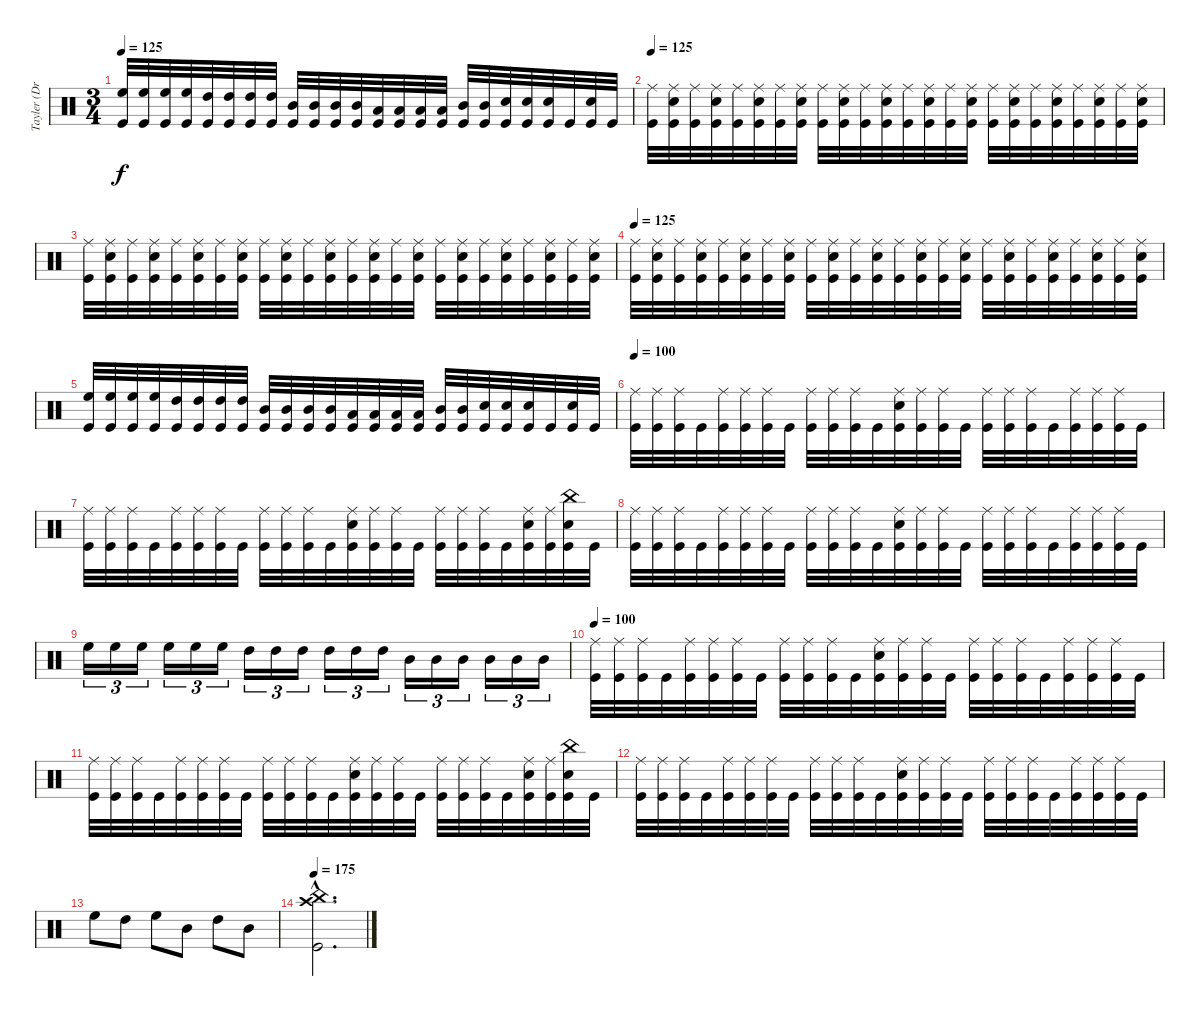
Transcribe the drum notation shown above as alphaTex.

\track ("Tayler (Drums)" "Tayler (Dr") {instrument percussion}
\staff {score}
\articulation defaults
\ts (3 4)
\tempo 125
\clef neutral
\ks c
("High Floor Tom (hit)" "Kick (hit)").32{dy f} ("High Floor Tom (hit)" "Kick (hit)").32 ("High Floor Tom (hit)" "Kick (hit)").32 ("High Floor Tom (hit)" "Kick (hit)").32 ("High Tom (hit)" "Kick (hit)").32 ("High Tom (hit)" "Kick (hit)").32 ("High Tom (hit)" "Kick (hit)").32 ("High Tom (hit)" "Kick (hit)").32 ("Mid Tom (hit)" "Kick (hit)").32 ("Mid Tom (hit)" "Kick (hit)").32 ("Mid Tom (hit)" "Kick (hit)").32 ("Mid Tom (hit)" "Kick (hit)").32 ("Low Tom (hit)" "Kick (hit)").32 ("Low Tom (hit)" "Kick (hit)").32 ("Low Tom (hit)" "Kick (hit)").32 ("Low Tom (hit)" "Kick (hit)").32 ("Mid Tom (hit)" "Kick (hit)").32 ("Mid Tom (hit)" "Kick (hit)").32 ("Electric Snare (hit)" "Kick (hit)").32 ("Electric Snare (hit)" "Kick (hit)").32 ("Electric Snare (hit)" "Kick (hit)").32 "Kick (hit)".32 ("Electric Snare (hit)" "Kick (hit)").32 "Kick (hit)".32 |
\tempo 125
("Ride (middle)" "Kick (hit)").32 ("Ride (middle)" "Electric Snare (hit)" "Kick (hit)").32 ("Ride (middle)" "Kick (hit)").32 ("Ride (middle)" "Electric Snare (hit)" "Kick (hit)").32 ("Ride (middle)" "Kick (hit)").32 ("Ride (middle)" "Electric Snare (hit)" "Kick (hit)").32 ("Ride (middle)" "Kick (hit)").32 ("Ride (middle)" "Electric Snare (hit)" "Kick (hit)").32 ("Ride (middle)" "Kick (hit)").32 ("Ride (middle)" "Electric Snare (hit)" "Kick (hit)").32 ("Ride (middle)" "Kick (hit)").32 ("Ride (middle)" "Electric Snare (hit)" "Kick (hit)").32 ("Ride (middle)" "Kick (hit)").32 ("Ride (middle)" "Electric Snare (hit)" "Kick (hit)").32 ("Ride (middle)" "Kick (hit)").32 ("Ride (middle)" "Electric Snare (hit)" "Kick (hit)").32 ("Ride (middle)" "Kick (hit)").32 ("Ride (middle)" "Electric Snare (hit)" "Kick (hit)").32 ("Ride (middle)" "Kick (hit)").32 ("Ride (middle)" "Electric Snare (hit)" "Kick (hit)").32 ("Ride (middle)" "Kick (hit)").32 ("Ride (middle)" "Electric Snare (hit)" "Kick (hit)").32 ("Ride (middle)" "Kick (hit)").32 ("Ride (middle)" "Electric Snare (hit)" "Kick (hit)").32 |
("Ride (middle)" "Kick (hit)").32 ("Ride (middle)" "Electric Snare (hit)" "Kick (hit)").32 ("Ride (middle)" "Kick (hit)").32 ("Ride (middle)" "Electric Snare (hit)" "Kick (hit)").32 ("Ride (middle)" "Kick (hit)").32 ("Ride (middle)" "Electric Snare (hit)" "Kick (hit)").32 ("Ride (middle)" "Kick (hit)").32 ("Ride (middle)" "Electric Snare (hit)" "Kick (hit)").32 ("Ride (middle)" "Kick (hit)").32 ("Ride (middle)" "Electric Snare (hit)" "Kick (hit)").32 ("Ride (middle)" "Kick (hit)").32 ("Ride (middle)" "Electric Snare (hit)" "Kick (hit)").32 ("Ride (middle)" "Kick (hit)").32 ("Ride (middle)" "Electric Snare (hit)" "Kick (hit)").32 ("Ride (middle)" "Kick (hit)").32 ("Ride (middle)" "Electric Snare (hit)" "Kick (hit)").32 ("Ride (middle)" "Kick (hit)").32 ("Ride (middle)" "Electric Snare (hit)" "Kick (hit)").32 ("Ride (middle)" "Kick (hit)").32 ("Ride (middle)" "Electric Snare (hit)" "Kick (hit)").32 ("Ride (middle)" "Kick (hit)").32 ("Ride (middle)" "Electric Snare (hit)" "Kick (hit)").32 ("Ride (middle)" "Kick (hit)").32 ("Ride (middle)" "Electric Snare (hit)" "Kick (hit)").32 |
\tempo 125
("Ride (middle)" "Kick (hit)").32 ("Ride (middle)" "Electric Snare (hit)" "Kick (hit)").32 ("Ride (middle)" "Kick (hit)").32 ("Ride (middle)" "Electric Snare (hit)" "Kick (hit)").32 ("Ride (middle)" "Kick (hit)").32 ("Ride (middle)" "Electric Snare (hit)" "Kick (hit)").32 ("Ride (middle)" "Kick (hit)").32 ("Ride (middle)" "Electric Snare (hit)" "Kick (hit)").32 ("Ride (middle)" "Kick (hit)").32 ("Ride (middle)" "Electric Snare (hit)" "Kick (hit)").32 ("Ride (middle)" "Kick (hit)").32 ("Ride (middle)" "Electric Snare (hit)" "Kick (hit)").32 ("Ride (middle)" "Kick (hit)").32 ("Ride (middle)" "Electric Snare (hit)" "Kick (hit)").32 ("Ride (middle)" "Kick (hit)").32 ("Ride (middle)" "Electric Snare (hit)" "Kick (hit)").32 ("Ride (middle)" "Kick (hit)").32 ("Ride (middle)" "Electric Snare (hit)" "Kick (hit)").32 ("Ride (middle)" "Kick (hit)").32 ("Ride (middle)" "Electric Snare (hit)" "Kick (hit)").32 ("Ride (middle)" "Kick (hit)").32 ("Ride (middle)" "Electric Snare (hit)" "Kick (hit)").32 ("Ride (middle)" "Kick (hit)").32 ("Ride (middle)" "Electric Snare (hit)" "Kick (hit)").32 |
("High Floor Tom (hit)" "Kick (hit)").32 ("High Floor Tom (hit)" "Kick (hit)").32 ("High Floor Tom (hit)" "Kick (hit)").32 ("High Floor Tom (hit)" "Kick (hit)").32 ("High Tom (hit)" "Kick (hit)").32 ("High Tom (hit)" "Kick (hit)").32 ("High Tom (hit)" "Kick (hit)").32 ("High Tom (hit)" "Kick (hit)").32 ("Mid Tom (hit)" "Kick (hit)").32 ("Mid Tom (hit)" "Kick (hit)").32 ("Mid Tom (hit)" "Kick (hit)").32 ("Mid Tom (hit)" "Kick (hit)").32 ("Low Tom (hit)" "Kick (hit)").32 ("Low Tom (hit)" "Kick (hit)").32 ("Low Tom (hit)" "Kick (hit)").32 ("Low Tom (hit)" "Kick (hit)").32 ("Mid Tom (hit)" "Kick (hit)").32 ("Mid Tom (hit)" "Kick (hit)").32 ("Electric Snare (hit)" "Kick (hit)").32 ("Electric Snare (hit)" "Kick (hit)").32 ("Electric Snare (hit)" "Kick (hit)").32 "Kick (hit)".32 ("Electric Snare (hit)" "Kick (hit)").32 "Kick (hit)".32 |
\tempo 100
("Ride (middle)" "Kick (hit)").32 ("Ride (middle)" "Kick (hit)").32 ("Ride (middle)" "Kick (hit)").32 "Kick (hit)".32 ("Ride (middle)" "Kick (hit)").32 ("Ride (middle)" "Kick (hit)").32 ("Ride (middle)" "Kick (hit)").32 "Kick (hit)".32 ("Ride (middle)" "Kick (hit)").32 ("Ride (middle)" "Kick (hit)").32 ("Ride (middle)" "Kick (hit)").32 "Kick (hit)".32 ("Ride (middle)" "Electric Snare (hit)" "Kick (hit)").32 ("Ride (middle)" "Kick (hit)").32 ("Ride (middle)" "Kick (hit)").32 "Kick (hit)".32 ("Ride (middle)" "Kick (hit)").32 ("Ride (middle)" "Kick (hit)").32 ("Ride (middle)" "Kick (hit)").32 "Kick (hit)".32 ("Ride (middle)" "Kick (hit)").32 ("Ride (middle)" "Kick (hit)").32 ("Ride (middle)" "Kick (hit)").32 "Kick (hit)".32 |
("Ride (middle)" "Kick (hit)").32 ("Ride (middle)" "Kick (hit)").32 ("Ride (middle)" "Kick (hit)").32 "Kick (hit)".32 ("Ride (middle)" "Kick (hit)").32 ("Ride (middle)" "Kick (hit)").32 ("Ride (middle)" "Kick (hit)").32 "Kick (hit)".32 ("Ride (middle)" "Kick (hit)").32 ("Ride (middle)" "Kick (hit)").32 ("Ride (middle)" "Kick (hit)").32 "Kick (hit)".32 ("Ride (middle)" "Electric Snare (hit)" "Kick (hit)").32 ("Ride (middle)" "Kick (hit)").32 ("Ride (middle)" "Kick (hit)").32 "Kick (hit)".32 ("Ride (middle)" "Kick (hit)").32 ("Ride (middle)" "Kick (hit)").32 ("Ride (middle)" "Kick (hit)").32 "Kick (hit)".32 ("Ride (middle)" "Electric Snare (hit)" "Kick (hit)").32 ("Ride (middle)" "Kick (hit)").32 ("China (hit)" "Electric Snare (hit)" "Kick (hit)").32 "Kick (hit)".32 |
("Ride (middle)" "Kick (hit)").32 ("Ride (middle)" "Kick (hit)").32 ("Ride (middle)" "Kick (hit)").32 "Kick (hit)".32 ("Ride (middle)" "Kick (hit)").32 ("Ride (middle)" "Kick (hit)").32 ("Ride (middle)" "Kick (hit)").32 "Kick (hit)".32 ("Ride (middle)" "Kick (hit)").32 ("Ride (middle)" "Kick (hit)").32 ("Ride (middle)" "Kick (hit)").32 "Kick (hit)".32 ("Ride (middle)" "Electric Snare (hit)" "Kick (hit)").32 ("Ride (middle)" "Kick (hit)").32 ("Ride (middle)" "Kick (hit)").32 "Kick (hit)".32 ("Ride (middle)" "Kick (hit)").32 ("Ride (middle)" "Kick (hit)").32 ("Ride (middle)" "Kick (hit)").32 "Kick (hit)".32 ("Ride (middle)" "Kick (hit)").32 ("Ride (middle)" "Kick (hit)").32 ("Ride (middle)" "Kick (hit)").32 "Kick (hit)".32 |
"High Floor Tom (hit)".16{tu (3 2)} "High Floor Tom (hit)".16{tu (3 2)} "High Floor Tom (hit)".16{tu (3 2)} "High Floor Tom (hit)".16{tu (3 2)} "High Floor Tom (hit)".16{tu (3 2)} "High Floor Tom (hit)".16{tu (3 2)} "High Tom (hit)".16{tu (3 2)} "High Tom (hit)".16{tu (3 2)} "High Tom (hit)".16{tu (3 2)} "High Tom (hit)".16{tu (3 2)} "High Tom (hit)".16{tu (3 2)} "High Tom (hit)".16{tu (3 2)} "Mid Tom (hit)".16{tu (3 2)} "Mid Tom (hit)".16{tu (3 2)} "Mid Tom (hit)".16{tu (3 2)} "Mid Tom (hit)".16{tu (3 2)} "Mid Tom (hit)".16{tu (3 2)} "Mid Tom (hit)".16{tu (3 2)} |
\tempo 100
("Ride (middle)" "Kick (hit)").32 ("Ride (middle)" "Kick (hit)").32 ("Ride (middle)" "Kick (hit)").32 "Kick (hit)".32 ("Ride (middle)" "Kick (hit)").32 ("Ride (middle)" "Kick (hit)").32 ("Ride (middle)" "Kick (hit)").32 "Kick (hit)".32 ("Ride (middle)" "Kick (hit)").32 ("Ride (middle)" "Kick (hit)").32 ("Ride (middle)" "Kick (hit)").32 "Kick (hit)".32 ("Ride (middle)" "Electric Snare (hit)" "Kick (hit)").32 ("Ride (middle)" "Kick (hit)").32 ("Ride (middle)" "Kick (hit)").32 "Kick (hit)".32 ("Ride (middle)" "Kick (hit)").32 ("Ride (middle)" "Kick (hit)").32 ("Ride (middle)" "Kick (hit)").32 "Kick (hit)".32 ("Ride (middle)" "Kick (hit)").32 ("Ride (middle)" "Kick (hit)").32 ("Ride (middle)" "Kick (hit)").32 "Kick (hit)".32 |
("Ride (middle)" "Kick (hit)").32 ("Ride (middle)" "Kick (hit)").32 ("Ride (middle)" "Kick (hit)").32 "Kick (hit)".32 ("Ride (middle)" "Kick (hit)").32 ("Ride (middle)" "Kick (hit)").32 ("Ride (middle)" "Kick (hit)").32 "Kick (hit)".32 ("Ride (middle)" "Kick (hit)").32 ("Ride (middle)" "Kick (hit)").32 ("Ride (middle)" "Kick (hit)").32 "Kick (hit)".32 ("Ride (middle)" "Electric Snare (hit)" "Kick (hit)").32 ("Ride (middle)" "Kick (hit)").32 ("Ride (middle)" "Kick (hit)").32 "Kick (hit)".32 ("Ride (middle)" "Kick (hit)").32 ("Ride (middle)" "Kick (hit)").32 ("Ride (middle)" "Kick (hit)").32 "Kick (hit)".32 ("Ride (middle)" "Electric Snare (hit)" "Kick (hit)").32 ("Ride (middle)" "Kick (hit)").32 ("China (hit)" "Electric Snare (hit)" "Kick (hit)").32 "Kick (hit)".32 |
("Ride (middle)" "Kick (hit)").32 ("Ride (middle)" "Kick (hit)").32 ("Ride (middle)" "Kick (hit)").32 "Kick (hit)".32 ("Ride (middle)" "Kick (hit)").32 ("Ride (middle)" "Kick (hit)").32 ("Ride (middle)" "Kick (hit)").32 "Kick (hit)".32 ("Ride (middle)" "Kick (hit)").32 ("Ride (middle)" "Kick (hit)").32 ("Ride (middle)" "Kick (hit)").32 "Kick (hit)".32 ("Ride (middle)" "Electric Snare (hit)" "Kick (hit)").32 ("Ride (middle)" "Kick (hit)").32 ("Ride (middle)" "Kick (hit)").32 "Kick (hit)".32 ("Ride (middle)" "Kick (hit)").32 ("Ride (middle)" "Kick (hit)").32 ("Ride (middle)" "Kick (hit)").32 "Kick (hit)".32 ("Ride (middle)" "Kick (hit)").32 ("Ride (middle)" "Kick (hit)").32 ("Ride (middle)" "Kick (hit)").32 "Kick (hit)".32 |
"High Floor Tom (hit)".8 "High Tom (hit)".8 "High Floor Tom (hit)".8 "Mid Tom (hit)".8 "High Tom (hit)".8 "Mid Tom (hit)".8 |
\tempo 175
("Crash high (hit)"{hac} "China (hit)"{hac} "Kick (hit)"{hac}).2{d}
